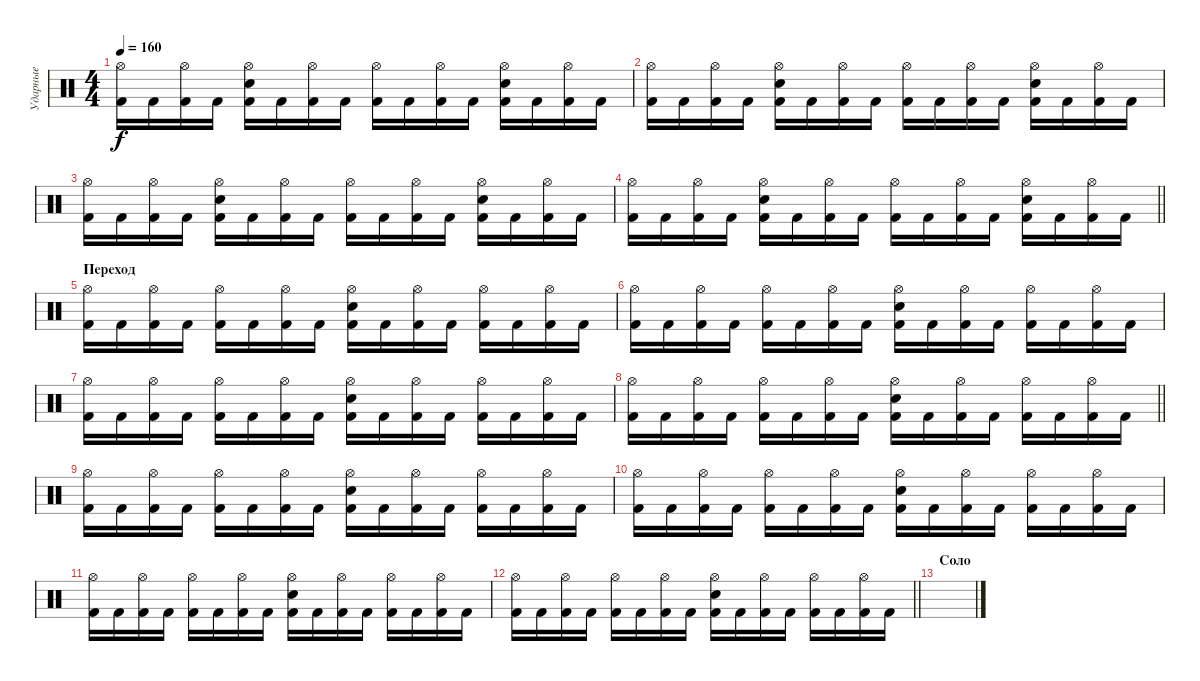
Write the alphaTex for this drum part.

\track ("Ударные" "Ударные") {instrument percussion}
\staff {score}
\articulation defaults
\ts (4 4)
\tempo 160
\clef neutral
\ks c
("Hi-Hat (open)" "Kick (hit) 2").16{dy f} "Kick (hit) 2".16 ("Hi-Hat (open)" "Kick (hit) 2").16 "Kick (hit) 2".16 ("Hi-Hat (open)" "Snare (hit) 2" "Kick (hit) 2").16 "Kick (hit) 2".16 ("Hi-Hat (open)" "Kick (hit) 2").16 "Kick (hit) 2".16 ("Hi-Hat (open)" "Kick (hit) 2").16 "Kick (hit) 2".16 ("Hi-Hat (open)" "Kick (hit) 2").16 "Kick (hit) 2".16 ("Hi-Hat (open)" "Snare (hit) 2" "Kick (hit) 2").16 "Kick (hit) 2".16 ("Hi-Hat (open)" "Kick (hit) 2").16 "Kick (hit) 2".16 |
("Hi-Hat (open)" "Kick (hit) 2").16 "Kick (hit) 2".16 ("Hi-Hat (open)" "Kick (hit) 2").16 "Kick (hit) 2".16 ("Hi-Hat (open)" "Snare (hit) 2" "Kick (hit) 2").16 "Kick (hit) 2".16 ("Hi-Hat (open)" "Kick (hit) 2").16 "Kick (hit) 2".16 ("Hi-Hat (open)" "Kick (hit) 2").16 "Kick (hit) 2".16 ("Hi-Hat (open)" "Kick (hit) 2").16 "Kick (hit) 2".16 ("Hi-Hat (open)" "Snare (hit) 2" "Kick (hit) 2").16 "Kick (hit) 2".16 ("Hi-Hat (open)" "Kick (hit) 2").16 "Kick (hit) 2".16 |
("Hi-Hat (open)" "Kick (hit) 2").16 "Kick (hit) 2".16 ("Hi-Hat (open)" "Kick (hit) 2").16 "Kick (hit) 2".16 ("Hi-Hat (open)" "Snare (hit) 2" "Kick (hit) 2").16 "Kick (hit) 2".16 ("Hi-Hat (open)" "Kick (hit) 2").16 "Kick (hit) 2".16 ("Hi-Hat (open)" "Kick (hit) 2").16 "Kick (hit) 2".16 ("Hi-Hat (open)" "Kick (hit) 2").16 "Kick (hit) 2".16 ("Hi-Hat (open)" "Snare (hit) 2" "Kick (hit) 2").16 "Kick (hit) 2".16 ("Hi-Hat (open)" "Kick (hit) 2").16 "Kick (hit) 2".16 |
\barLineRight lightlight
("Hi-Hat (open)" "Kick (hit) 2").16 "Kick (hit) 2".16 ("Hi-Hat (open)" "Kick (hit) 2").16 "Kick (hit) 2".16 ("Hi-Hat (open)" "Snare (hit) 2" "Kick (hit) 2").16 "Kick (hit) 2".16 ("Hi-Hat (open)" "Kick (hit) 2").16 "Kick (hit) 2".16 ("Hi-Hat (open)" "Kick (hit) 2").16 "Kick (hit) 2".16 ("Hi-Hat (open)" "Kick (hit) 2").16 "Kick (hit) 2".16 ("Hi-Hat (open)" "Snare (hit) 2" "Kick (hit) 2").16 "Kick (hit) 2".16 ("Hi-Hat (open)" "Kick (hit) 2").16 "Kick (hit) 2".16 |
\section ("" "Переход")
("Hi-Hat (open)" "Kick (hit) 2").16 "Kick (hit) 2".16 ("Hi-Hat (open)" "Kick (hit) 2").16 "Kick (hit) 2".16 ("Hi-Hat (open)" "Kick (hit) 2").16 "Kick (hit) 2".16 ("Hi-Hat (open)" "Kick (hit) 2").16 "Kick (hit) 2".16 ("Hi-Hat (open)" "Snare (hit) 2" "Kick (hit) 2").16 "Kick (hit) 2".16 ("Hi-Hat (open)" "Kick (hit) 2").16 "Kick (hit) 2".16 ("Hi-Hat (open)" "Kick (hit) 2").16 "Kick (hit) 2".16 ("Hi-Hat (open)" "Kick (hit) 2").16 "Kick (hit) 2".16 |
("Hi-Hat (open)" "Kick (hit) 2").16 "Kick (hit) 2".16 ("Hi-Hat (open)" "Kick (hit) 2").16 "Kick (hit) 2".16 ("Hi-Hat (open)" "Kick (hit) 2").16 "Kick (hit) 2".16 ("Hi-Hat (open)" "Kick (hit) 2").16 "Kick (hit) 2".16 ("Hi-Hat (open)" "Snare (hit) 2" "Kick (hit) 2").16 "Kick (hit) 2".16 ("Hi-Hat (open)" "Kick (hit) 2").16 "Kick (hit) 2".16 ("Hi-Hat (open)" "Kick (hit) 2").16 "Kick (hit) 2".16 ("Hi-Hat (open)" "Kick (hit) 2").16 "Kick (hit) 2".16 |
("Hi-Hat (open)" "Kick (hit) 2").16 "Kick (hit) 2".16 ("Hi-Hat (open)" "Kick (hit) 2").16 "Kick (hit) 2".16 ("Hi-Hat (open)" "Kick (hit) 2").16 "Kick (hit) 2".16 ("Hi-Hat (open)" "Kick (hit) 2").16 "Kick (hit) 2".16 ("Hi-Hat (open)" "Snare (hit) 2" "Kick (hit) 2").16 "Kick (hit) 2".16 ("Hi-Hat (open)" "Kick (hit) 2").16 "Kick (hit) 2".16 ("Hi-Hat (open)" "Kick (hit) 2").16 "Kick (hit) 2".16 ("Hi-Hat (open)" "Kick (hit) 2").16 "Kick (hit) 2".16 |
\barLineRight lightlight
("Hi-Hat (open)" "Kick (hit) 2").16 "Kick (hit) 2".16 ("Hi-Hat (open)" "Kick (hit) 2").16 "Kick (hit) 2".16 ("Hi-Hat (open)" "Kick (hit) 2").16 "Kick (hit) 2".16 ("Hi-Hat (open)" "Kick (hit) 2").16 "Kick (hit) 2".16 ("Hi-Hat (open)" "Snare (hit) 2" "Kick (hit) 2").16 "Kick (hit) 2".16 ("Hi-Hat (open)" "Kick (hit) 2").16 "Kick (hit) 2".16 ("Hi-Hat (open)" "Kick (hit) 2").16 "Kick (hit) 2".16 ("Hi-Hat (open)" "Kick (hit) 2").16 "Kick (hit) 2".16 |
("Hi-Hat (open)" "Kick (hit) 2").16 "Kick (hit) 2".16 ("Hi-Hat (open)" "Kick (hit) 2").16 "Kick (hit) 2".16 ("Hi-Hat (open)" "Kick (hit) 2").16 "Kick (hit) 2".16 ("Hi-Hat (open)" "Kick (hit) 2").16 "Kick (hit) 2".16 ("Hi-Hat (open)" "Snare (hit) 2" "Kick (hit) 2").16 "Kick (hit) 2".16 ("Hi-Hat (open)" "Kick (hit) 2").16 "Kick (hit) 2".16 ("Hi-Hat (open)" "Kick (hit) 2").16 "Kick (hit) 2".16 ("Hi-Hat (open)" "Kick (hit) 2").16 "Kick (hit) 2".16 |
("Hi-Hat (open)" "Kick (hit) 2").16 "Kick (hit) 2".16 ("Hi-Hat (open)" "Kick (hit) 2").16 "Kick (hit) 2".16 ("Hi-Hat (open)" "Kick (hit) 2").16 "Kick (hit) 2".16 ("Hi-Hat (open)" "Kick (hit) 2").16 "Kick (hit) 2".16 ("Hi-Hat (open)" "Snare (hit) 2" "Kick (hit) 2").16 "Kick (hit) 2".16 ("Hi-Hat (open)" "Kick (hit) 2").16 "Kick (hit) 2".16 ("Hi-Hat (open)" "Kick (hit) 2").16 "Kick (hit) 2".16 ("Hi-Hat (open)" "Kick (hit) 2").16 "Kick (hit) 2".16 |
("Hi-Hat (open)" "Kick (hit) 2").16 "Kick (hit) 2".16 ("Hi-Hat (open)" "Kick (hit) 2").16 "Kick (hit) 2".16 ("Hi-Hat (open)" "Kick (hit) 2").16 "Kick (hit) 2".16 ("Hi-Hat (open)" "Kick (hit) 2").16 "Kick (hit) 2".16 ("Hi-Hat (open)" "Snare (hit) 2" "Kick (hit) 2").16 "Kick (hit) 2".16 ("Hi-Hat (open)" "Kick (hit) 2").16 "Kick (hit) 2".16 ("Hi-Hat (open)" "Kick (hit) 2").16 "Kick (hit) 2".16 ("Hi-Hat (open)" "Kick (hit) 2").16 "Kick (hit) 2".16 |
\barLineRight lightlight
("Hi-Hat (open)" "Kick (hit) 2").16 "Kick (hit) 2".16 ("Hi-Hat (open)" "Kick (hit) 2").16 "Kick (hit) 2".16 ("Hi-Hat (open)" "Kick (hit) 2").16 "Kick (hit) 2".16 ("Hi-Hat (open)" "Kick (hit) 2").16 "Kick (hit) 2".16 ("Hi-Hat (open)" "Snare (hit) 2" "Kick (hit) 2").16 "Kick (hit) 2".16 ("Hi-Hat (open)" "Kick (hit) 2").16 "Kick (hit) 2".16 ("Hi-Hat (open)" "Kick (hit) 2").16 "Kick (hit) 2".16 ("Hi-Hat (open)" "Kick (hit) 2").16 "Kick (hit) 2".16 |
\section ("" "Соло")
